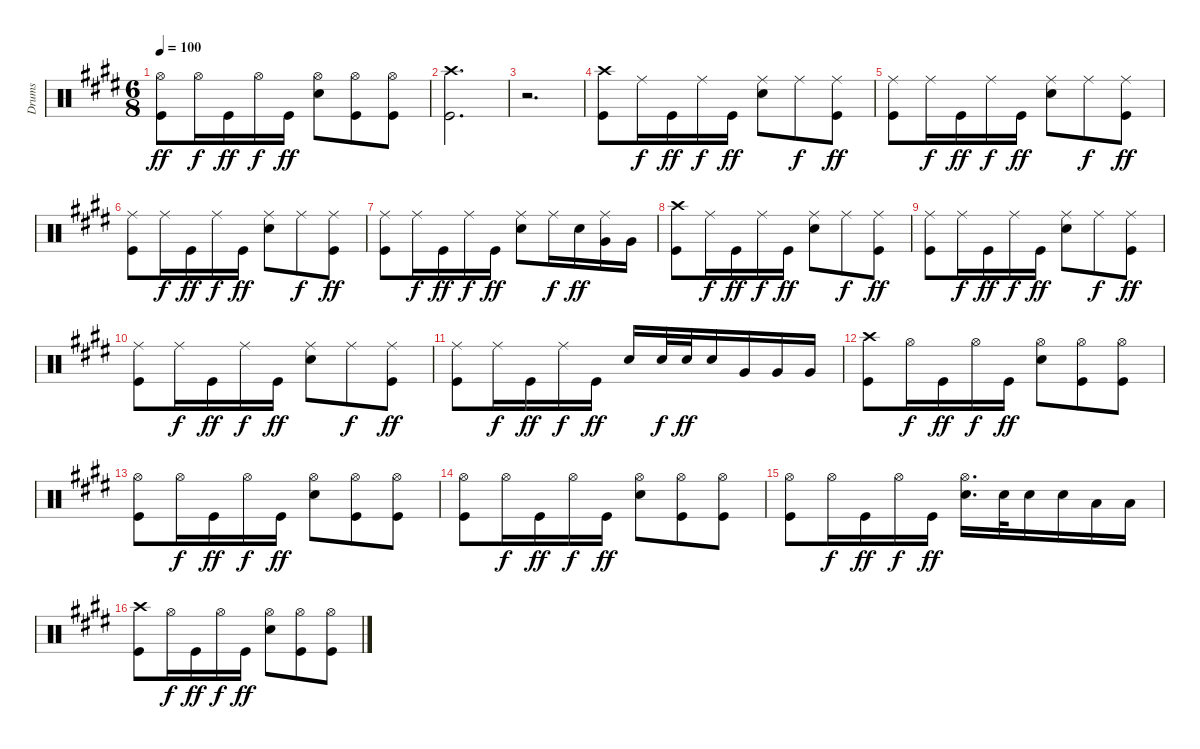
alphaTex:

\track ("Drums" "Drums") {instrument percussion}
\staff {score}
\articulation defaults
\ts (6 8)
\tempo 100
\clef neutral
\ks c#minor
("Hi-Hat (open)" "Kick (hit)").8{dy ff} "Hi-Hat (open)".16{dy f} "Kick (hit)".16{dy ff} "Hi-Hat (open)".16{dy f} "Kick (hit)".16{dy ff} ("Hi-Hat (open)" "Electric Snare (hit)").8 ("Hi-Hat (open)" "Kick (hit)").8 ("Hi-Hat (open)" "Kick (hit)").8 |
("Crash high (hit)" "Kick (hit)").2{d} |
r.2{d} |
("Crash high (hit)" "Kick (hit)").8 "Ride (middle)".16{dy f} "Kick (hit)".16{dy ff} "Ride (middle)".16{dy f} "Kick (hit)".16{dy ff} ("Ride (middle)" "Electric Snare (hit)").8 "Ride (middle)".8{dy f} ("Ride (middle)" "Kick (hit)").8{dy ff} |
("Ride (middle)" "Kick (hit)").8 "Ride (middle)".16{dy f} "Kick (hit)".16{dy ff} "Ride (middle)".16{dy f} "Kick (hit)".16{dy ff} ("Ride (middle)" "Electric Snare (hit)").8 "Ride (middle)".8{dy f} ("Ride (middle)" "Kick (hit)").8{dy ff} |
("Ride (middle)" "Kick (hit)").8 "Ride (middle)".16{dy f} "Kick (hit)".16{dy ff} "Ride (middle)".16{dy f} "Kick (hit)".16{dy ff} ("Ride (middle)" "Electric Snare (hit)").8 "Ride (middle)".8{dy f} ("Ride (middle)" "Kick (hit)").8{dy ff} |
("Ride (middle)" "Kick (hit)").8 "Ride (middle)".16{dy f} "Kick (hit)".16{dy ff} "Ride (middle)".16{dy f} "Kick (hit)".16{dy ff} ("Ride (middle)" "Electric Snare (hit)").8 "Ride (middle)".16{dy f} "Electric Snare (hit)".16{dy ff} ("Ride (middle)" "Very Low Tom (hit)").16 "Very Low Tom (hit)".16 |
("Crash high (hit)" "Kick (hit)").8 "Ride (middle)".16{dy f} "Kick (hit)".16{dy ff} "Ride (middle)".16{dy f} "Kick (hit)".16{dy ff} ("Ride (middle)" "Electric Snare (hit)").8 "Ride (middle)".8{dy f} ("Ride (middle)" "Kick (hit)").8{dy ff} |
("Ride (middle)" "Kick (hit)").8 "Ride (middle)".16{dy f} "Kick (hit)".16{dy ff} "Ride (middle)".16{dy f} "Kick (hit)".16{dy ff} ("Ride (middle)" "Electric Snare (hit)").8 "Ride (middle)".8{dy f} ("Ride (middle)" "Kick (hit)").8{dy ff} |
("Ride (middle)" "Kick (hit)").8 "Ride (middle)".16{dy f} "Kick (hit)".16{dy ff} "Ride (middle)".16{dy f} "Kick (hit)".16{dy ff} ("Ride (middle)" "Electric Snare (hit)").8 "Ride (middle)".8{dy f} ("Ride (middle)" "Kick (hit)").8{dy ff} |
("Ride (middle)" "Kick (hit)").8 "Ride (middle)".16{dy f} "Kick (hit)".16{dy ff} "Ride (middle)".16{dy f} "Kick (hit)".16{dy ff} "Electric Snare (hit)".16 "Electric Snare (hit)".32{dy f} "Electric Snare (hit)".32{dy ff} "Electric Snare (hit)".16 "Very Low Tom (hit)".16 "Very Low Tom (hit)".16 "Very Low Tom (hit)".16 |
("Crash high (hit)" "Kick (hit)").8 "Hi-Hat (open)".16{dy f} "Kick (hit)".16{dy ff} "Hi-Hat (open)".16{dy f} "Kick (hit)".16{dy ff} ("Hi-Hat (open)" "Electric Snare (hit)").8 ("Hi-Hat (open)" "Kick (hit)").8 ("Hi-Hat (open)" "Kick (hit)").8 |
("Hi-Hat (open)" "Kick (hit)").8 "Hi-Hat (open)".16{dy f} "Kick (hit)".16{dy ff} "Hi-Hat (open)".16{dy f} "Kick (hit)".16{dy ff} ("Hi-Hat (open)" "Electric Snare (hit)").8 ("Hi-Hat (open)" "Kick (hit)").8 ("Hi-Hat (open)" "Kick (hit)").8 |
("Hi-Hat (open)" "Kick (hit)").8 "Hi-Hat (open)".16{dy f} "Kick (hit)".16{dy ff} "Hi-Hat (open)".16{dy f} "Kick (hit)".16{dy ff} ("Hi-Hat (open)" "Electric Snare (hit)").8 ("Hi-Hat (open)" "Kick (hit)").8 ("Hi-Hat (open)" "Kick (hit)").8 |
("Hi-Hat (open)" "Kick (hit)").8 "Hi-Hat (open)".16{dy f} "Kick (hit)".16{dy ff} "Hi-Hat (open)".16{dy f} "Kick (hit)".16{dy ff} ("Hi-Hat (open)" "Electric Snare (hit)").16{d} "Electric Snare (hit)".32 "Electric Snare (hit)".16 "Electric Snare (hit)".16 "Low Tom (hit)".16 "Low Tom (hit)".16 |
("Crash high (hit)" "Kick (hit)").8 "Hi-Hat (open)".16{dy f} "Kick (hit)".16{dy ff} "Hi-Hat (open)".16{dy f} "Kick (hit)".16{dy ff} ("Hi-Hat (open)" "Electric Snare (hit)").8 ("Hi-Hat (open)" "Kick (hit)").8 ("Hi-Hat (open)" "Kick (hit)").8
